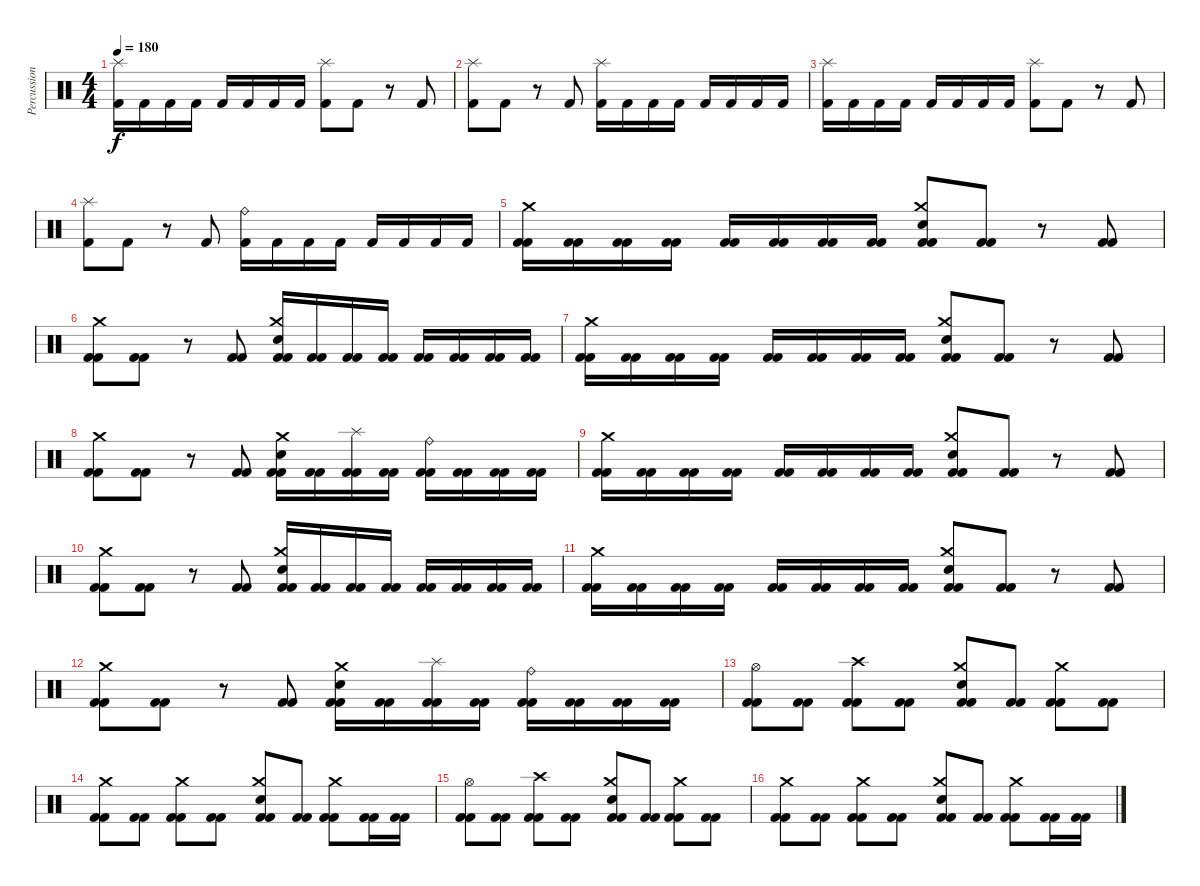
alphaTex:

\track ("Percussion" "Percussion") {instrument percussion}
\staff {score}
\articulation defaults
\ts (4 4)
\tempo 180
\clef neutral
\ks c
("Splash (hit)" "Kick (hit) 2").16{dy f} "Kick (hit) 2".16 "Kick (hit) 2".16 "Kick (hit) 2".16 "Kick (hit) 2".16 "Kick (hit) 2".16 "Kick (hit) 2".16 "Kick (hit) 2".16 ("Splash (hit)" "Kick (hit) 2").8 "Kick (hit) 2".8 r.8 "Kick (hit) 2".8 |
("Splash (hit)" "Kick (hit) 2").8 "Kick (hit) 2".8 r.8 "Kick (hit) 2".8 ("Splash (hit)" "Kick (hit) 2").16 "Kick (hit) 2".16 "Kick (hit) 2".16 "Kick (hit) 2".16 "Kick (hit) 2".16 "Kick (hit) 2".16 "Kick (hit) 2".16 "Kick (hit) 2".16 |
("Splash (hit)" "Kick (hit) 2").16 "Kick (hit) 2".16 "Kick (hit) 2".16 "Kick (hit) 2".16 "Kick (hit) 2".16 "Kick (hit) 2".16 "Kick (hit) 2".16 "Kick (hit) 2".16 ("Splash (hit)" "Kick (hit) 2").8 "Kick (hit) 2".8 r.8 "Kick (hit) 2".8 |
("Splash (hit)" "Kick (hit) 2").8 "Kick (hit) 2".8 r.8 "Kick (hit) 2".8 ("Ride (bell)" "Kick (hit) 2").16 "Kick (hit) 2".16 "Kick (hit) 2".16 "Kick (hit) 2".16 "Kick (hit) 2".16 "Kick (hit) 2".16 "Kick (hit) 2".16 "Kick (hit) 2".16 |
("Crash medium (hit)" "Kick (hit) 2" "Kick (hit) 2").16 ("Kick (hit) 2" "Kick (hit) 2").16 ("Kick (hit) 2" "Kick (hit) 2").16 ("Kick (hit) 2" "Kick (hit) 2").16 ("Kick (hit) 2" "Kick (hit) 2").16 ("Kick (hit) 2" "Kick (hit) 2").16 ("Kick (hit) 2" "Kick (hit) 2").16 ("Kick (hit) 2" "Kick (hit) 2").16 ("Crash medium (hit)" "Electric Snare (hit)" "Kick (hit) 2" "Kick (hit) 2").8 ("Kick (hit) 2" "Kick (hit) 2").8 r.8 ("Kick (hit) 2" "Kick (hit) 2").8 |
("Crash medium (hit)" "Kick (hit) 2" "Kick (hit) 2").8 ("Kick (hit) 2" "Kick (hit) 2").8 r.8 ("Kick (hit) 2" "Kick (hit) 2").8 ("Crash medium (hit)" "Electric Snare (hit)" "Kick (hit) 2" "Kick (hit) 2").16 ("Kick (hit) 2" "Kick (hit) 2").16 ("Kick (hit) 2" "Kick (hit) 2").16 ("Kick (hit) 2" "Kick (hit) 2").16 ("Kick (hit) 2" "Kick (hit) 2").16 ("Kick (hit) 2" "Kick (hit) 2").16 ("Kick (hit) 2" "Kick (hit) 2").16 ("Kick (hit) 2" "Kick (hit) 2").16 |
("Crash medium (hit)" "Kick (hit) 2" "Kick (hit) 2").16 ("Kick (hit) 2" "Kick (hit) 2").16 ("Kick (hit) 2" "Kick (hit) 2").16 ("Kick (hit) 2" "Kick (hit) 2").16 ("Kick (hit) 2" "Kick (hit) 2").16 ("Kick (hit) 2" "Kick (hit) 2").16 ("Kick (hit) 2" "Kick (hit) 2").16 ("Kick (hit) 2" "Kick (hit) 2").16 ("Crash medium (hit)" "Electric Snare (hit)" "Kick (hit) 2" "Kick (hit) 2").8 ("Kick (hit) 2" "Kick (hit) 2").8 r.8 ("Kick (hit) 2" "Kick (hit) 2").8 |
("Crash medium (hit)" "Kick (hit) 2" "Kick (hit) 2").8 ("Kick (hit) 2" "Kick (hit) 2").8 r.8 ("Kick (hit) 2" "Kick (hit) 2").8 ("Crash medium (hit)" "Electric Snare (hit)" "Kick (hit) 2" "Kick (hit) 2").16 ("Kick (hit) 2" "Kick (hit) 2").16 ("Splash (hit)" "Kick (hit) 2" "Kick (hit) 2").16 ("Kick (hit) 2" "Kick (hit) 2").16 ("Ride (bell)" "Kick (hit) 2" "Kick (hit) 2").16 ("Kick (hit) 2" "Kick (hit) 2").16 ("Kick (hit) 2" "Kick (hit) 2").16 ("Kick (hit) 2" "Kick (hit) 2").16 |
("Crash medium (hit)" "Kick (hit) 2" "Kick (hit) 2").16 ("Kick (hit) 2" "Kick (hit) 2").16 ("Kick (hit) 2" "Kick (hit) 2").16 ("Kick (hit) 2" "Kick (hit) 2").16 ("Kick (hit) 2" "Kick (hit) 2").16 ("Kick (hit) 2" "Kick (hit) 2").16 ("Kick (hit) 2" "Kick (hit) 2").16 ("Kick (hit) 2" "Kick (hit) 2").16 ("Crash medium (hit)" "Electric Snare (hit)" "Kick (hit) 2" "Kick (hit) 2").8 ("Kick (hit) 2" "Kick (hit) 2").8 r.8 ("Kick (hit) 2" "Kick (hit) 2").8 |
("Crash medium (hit)" "Kick (hit) 2" "Kick (hit) 2").8 ("Kick (hit) 2" "Kick (hit) 2").8 r.8 ("Kick (hit) 2" "Kick (hit) 2").8 ("Crash medium (hit)" "Electric Snare (hit)" "Kick (hit) 2" "Kick (hit) 2").16 ("Kick (hit) 2" "Kick (hit) 2").16 ("Kick (hit) 2" "Kick (hit) 2").16 ("Kick (hit) 2" "Kick (hit) 2").16 ("Kick (hit) 2" "Kick (hit) 2").16 ("Kick (hit) 2" "Kick (hit) 2").16 ("Kick (hit) 2" "Kick (hit) 2").16 ("Kick (hit) 2" "Kick (hit) 2").16 |
("Crash medium (hit)" "Kick (hit) 2" "Kick (hit) 2").16 ("Kick (hit) 2" "Kick (hit) 2").16 ("Kick (hit) 2" "Kick (hit) 2").16 ("Kick (hit) 2" "Kick (hit) 2").16 ("Kick (hit) 2" "Kick (hit) 2").16 ("Kick (hit) 2" "Kick (hit) 2").16 ("Kick (hit) 2" "Kick (hit) 2").16 ("Kick (hit) 2" "Kick (hit) 2").16 ("Crash medium (hit)" "Electric Snare (hit)" "Kick (hit) 2" "Kick (hit) 2").8 ("Kick (hit) 2" "Kick (hit) 2").8 r.8 ("Kick (hit) 2" "Kick (hit) 2").8 |
("Crash medium (hit)" "Kick (hit) 2" "Kick (hit) 2").8 ("Kick (hit) 2" "Kick (hit) 2").8 r.8 ("Kick (hit) 2" "Kick (hit) 2").8 ("Crash medium (hit)" "Electric Snare (hit)" "Kick (hit) 2" "Kick (hit) 2").16 ("Kick (hit) 2" "Kick (hit) 2").16 ("Splash (hit)" "Kick (hit) 2" "Kick (hit) 2").16 ("Kick (hit) 2" "Kick (hit) 2").16 ("Ride (bell)" "Kick (hit) 2" "Kick (hit) 2").16 ("Kick (hit) 2" "Kick (hit) 2").16 ("Kick (hit) 2" "Kick (hit) 2").16 ("Kick (hit) 2" "Kick (hit) 2").16 |
("Hi-Hat (open)" "Kick (hit) 2" "Kick (hit) 2").8 ("Kick (hit) 2" "Kick (hit) 2").8 ("Crash high (hit)" "Kick (hit) 2" "Kick (hit) 2").8 ("Kick (hit) 2" "Kick (hit) 2").8 ("Crash medium (hit)" "Electric Snare (hit)" "Kick (hit) 2" "Kick (hit) 2").8 ("Kick (hit) 2" "Kick (hit) 2").8 ("Crash medium (hit)" "Kick (hit) 2" "Kick (hit) 2").8 ("Kick (hit) 2" "Kick (hit) 2").8 |
("Crash medium (hit)" "Kick (hit) 2" "Kick (hit) 2").8 ("Kick (hit) 2" "Kick (hit) 2").8 ("Crash medium (hit)" "Kick (hit) 2" "Kick (hit) 2").8 ("Kick (hit) 2" "Kick (hit) 2").8 ("Crash medium (hit)" "Electric Snare (hit)" "Kick (hit) 2" "Kick (hit) 2").8 ("Kick (hit) 2" "Kick (hit) 2").8 ("Crash medium (hit)" "Kick (hit) 2" "Kick (hit) 2").8 ("Kick (hit) 2" "Kick (hit) 2").16 ("Kick (hit) 2" "Kick (hit) 2").16 |
("Hi-Hat (open)" "Kick (hit) 2" "Kick (hit) 2").8 ("Kick (hit) 2" "Kick (hit) 2").8 ("Crash high (hit)" "Kick (hit) 2" "Kick (hit) 2").8 ("Kick (hit) 2" "Kick (hit) 2").8 ("Crash medium (hit)" "Electric Snare (hit)" "Kick (hit) 2" "Kick (hit) 2").8 ("Kick (hit) 2" "Kick (hit) 2").8 ("Crash medium (hit)" "Kick (hit) 2" "Kick (hit) 2").8 ("Kick (hit) 2" "Kick (hit) 2").8 |
("Crash medium (hit)" "Kick (hit) 2" "Kick (hit) 2").8 ("Kick (hit) 2" "Kick (hit) 2").8 ("Crash medium (hit)" "Kick (hit) 2" "Kick (hit) 2").8 ("Kick (hit) 2" "Kick (hit) 2").8 ("Crash medium (hit)" "Electric Snare (hit)" "Kick (hit) 2" "Kick (hit) 2").8 ("Kick (hit) 2" "Kick (hit) 2").8 ("Crash medium (hit)" "Kick (hit) 2" "Kick (hit) 2").8 ("Kick (hit) 2" "Kick (hit) 2").16 ("Kick (hit) 2" "Kick (hit) 2").16
